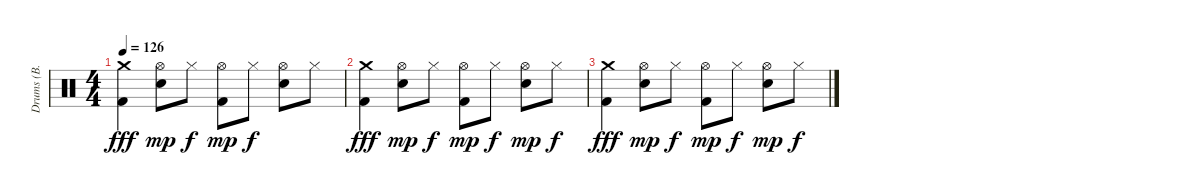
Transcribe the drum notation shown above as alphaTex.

\track ("Drums (B. Downey)" "Drums (B. ") {instrument percussion}
\staff {score}
\articulation defaults
\ts (4 4)
\tempo 126
\clef neutral
\ks c
("Crash medium (hit)" "Kick (hit) 2").4{dy fff} ("Hi-Hat (open)" "Electric Snare (hit)").8{dy mp} "Hi-Hat (closed)".8{dy f} ("Hi-Hat (open)" "Kick (hit) 2").8{dy mp} "Hi-Hat (closed)".8{dy f} ("Hi-Hat (open)" "Electric Snare (hit)").8 "Hi-Hat (closed)".8 |
("Crash medium (hit)" "Kick (hit) 2").4{dy fff} ("Hi-Hat (open)" "Electric Snare (hit)").8{dy mp} "Hi-Hat (closed)".8{dy f} ("Hi-Hat (open)" "Kick (hit) 2").8{dy mp} "Hi-Hat (closed)".8{dy f} ("Hi-Hat (open)" "Electric Snare (hit)").8{dy mp} "Hi-Hat (closed)".8{dy f} |
("Crash medium (hit)" "Kick (hit) 2").4{dy fff} ("Hi-Hat (open)" "Electric Snare (hit)").8{dy mp} "Hi-Hat (closed)".8{dy f} ("Hi-Hat (open)" "Kick (hit) 2").8{dy mp} "Hi-Hat (closed)".8{dy f} ("Hi-Hat (open)" "Electric Snare (hit)").8{dy mp} "Hi-Hat (closed)".8{dy f}
